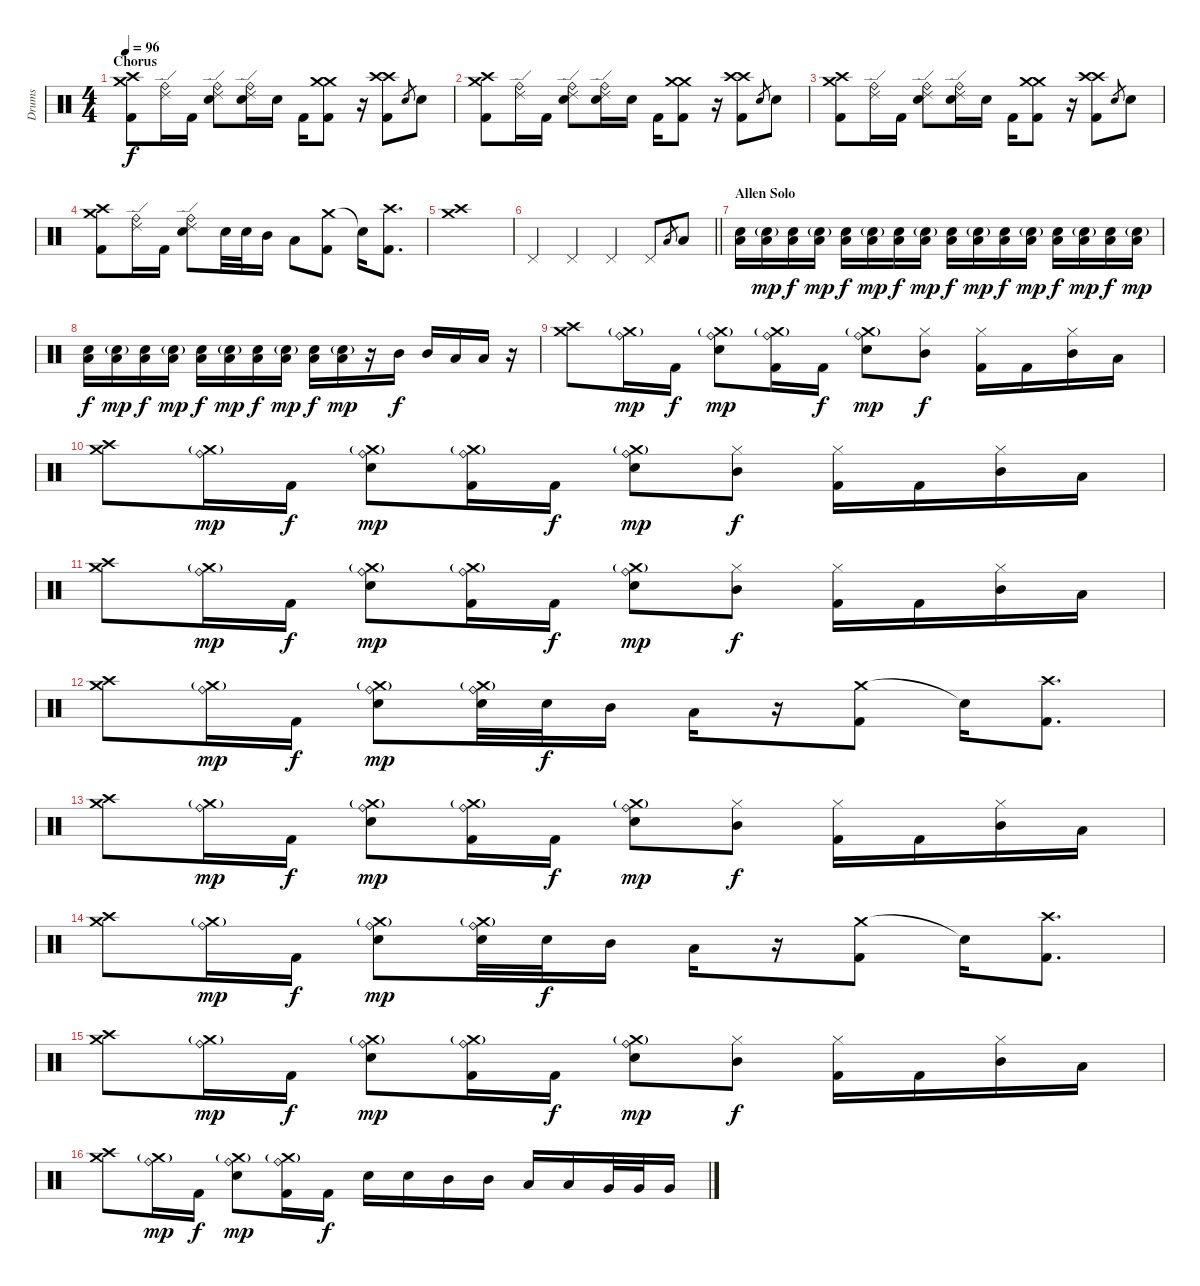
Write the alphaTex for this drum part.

\track ("Drums" "Drums") {instrument percussion}
\staff {score}
\articulation defaults
\ts (4 4)
\section ("" "Chorus")
\tempo 96
\clef neutral
\ks c
("Crash medium (hit)" "Crash high (hit)" "Kick (hit) 2").8{dy f} ("Ride (edge) 2" "Ride (bell)").16 "Kick (hit) 2".16 ("Ride (edge) 2" "Ride (bell)" "Electric Snare (hit)").8 ("Ride (edge) 2" "Ride (bell)" "Electric Snare (hit)").16 "Electric Snare (hit)".16 "Kick (hit) 2".16 ("Crash medium (hit)" "Crash medium (hit)" "Kick (hit) 2").8 r.16 ("Crash high (hit)" "Crash high (hit)" "Kick (hit) 2").8 "Electric Snare (hit)".8{gr} "Electric Snare (hit)".8 |
("Crash medium (hit)" "Crash high (hit)" "Kick (hit) 2").8 ("Ride (edge) 2" "Ride (bell)").16 "Kick (hit) 2".16 ("Ride (edge) 2" "Ride (bell)" "Electric Snare (hit)").8 ("Ride (edge) 2" "Ride (bell)" "Electric Snare (hit)").16 "Electric Snare (hit)".16 "Kick (hit) 2".16 ("Crash medium (hit)" "Crash medium (hit)" "Kick (hit) 2").8 r.16 ("Crash high (hit)" "Crash high (hit)" "Kick (hit) 2").8 "Electric Snare (hit)".8{gr} "Electric Snare (hit)".8 |
("Crash medium (hit)" "Crash high (hit)" "Kick (hit) 2").8 ("Ride (edge) 2" "Ride (bell)").16 "Kick (hit) 2".16 ("Ride (edge) 2" "Ride (bell)" "Electric Snare (hit)").8 ("Ride (edge) 2" "Ride (bell)" "Electric Snare (hit)").16 "Electric Snare (hit)".16 "Kick (hit) 2".16 ("Crash medium (hit)" "Crash medium (hit)" "Kick (hit) 2").8 r.16 ("Crash high (hit)" "Crash high (hit)" "Kick (hit) 2").8 "Electric Snare (hit)".8{gr} "Electric Snare (hit)".8 |
("Crash medium (hit)" "Crash high (hit)" "Kick (hit) 2").8 ("Ride (edge) 2" "Ride (bell)").16 "Kick (hit) 2".16 ("Ride (edge) 2" "Ride (bell)" "Electric Snare (hit)").8 "Electric Snare (hit)".32 "Electric Snare (hit)".32 "Mid Tom (hit)".16 "Low Tom (hit)".8 ("Crash medium (hit)" "Kick (hit) 2").8 "Snare (hit)"{t}.16 ("Crash high (hit)" "Kick (hit) 2").8{d} |
("Crash medium (hit)" "Crash high (hit)").1 |
\barLineRight lightlight "Pedal Hi-Hat (hit)".4 "Pedal Hi-Hat (hit)".4 "Pedal Hi-Hat (hit)".4 "Pedal Hi-Hat (hit)".8 "Low Floor Tom (hit)".8{gr} "Low Floor Tom (hit)".8
|
\section ("" "Allen Solo")
("Electric Snare (hit)" "Low Floor Tom (hit)").16 ("Electric Snare (hit)"{g} "Low Floor Tom (hit)").16{dy mp} ("Electric Snare (hit)" "Low Floor Tom (hit)").16{dy f} ("Electric Snare (hit)"{g} "Low Floor Tom (hit)").16{dy mp} ("Electric Snare (hit)" "Low Floor Tom (hit)").16{dy f} ("Electric Snare (hit)"{g} "Low Floor Tom (hit)").16{dy mp} ("Electric Snare (hit)" "Low Floor Tom (hit)").16{dy f} ("Electric Snare (hit)"{g} "Low Floor Tom (hit)").16{dy mp} ("Electric Snare (hit)" "Low Floor Tom (hit)").16{dy f} ("Electric Snare (hit)"{g} "Low Floor Tom (hit)").16{dy mp} ("Electric Snare (hit)" "Low Floor Tom (hit)").16{dy f} ("Electric Snare (hit)"{g} "Low Floor Tom (hit)").16{dy mp} ("Electric Snare (hit)" "Low Floor Tom (hit)").16{dy f} ("Electric Snare (hit)"{g} "Low Floor Tom (hit)").16{dy mp} ("Electric Snare (hit)" "Low Floor Tom (hit)").16{dy f} ("Electric Snare (hit)"{g} "Low Floor Tom (hit)").16{dy mp} |
("Electric Snare (hit)" "Low Floor Tom (hit)").16{dy f} ("Electric Snare (hit)"{g} "Low Floor Tom (hit)").16{dy mp} ("Electric Snare (hit)" "Low Floor Tom (hit)").16{dy f} ("Electric Snare (hit)"{g} "Low Floor Tom (hit)").16{dy mp} ("Electric Snare (hit)" "Low Floor Tom (hit)").16{dy f} ("Electric Snare (hit)"{g} "Low Floor Tom (hit)").16{dy mp} ("Electric Snare (hit)" "Low Floor Tom (hit)").16{dy f} ("Electric Snare (hit)"{g} "Low Floor Tom (hit)").16{dy mp} ("Electric Snare (hit)" "Low Floor Tom (hit)").16{dy f} ("Electric Snare (hit)"{g} "Low Floor Tom (hit)").16{dy mp} r.16 "Mid Tom (hit)".16{dy f} "Mid Tom (hit)".16 "Low Tom (hit)".16 "Low Tom (hit)".16 r.16 |
("Crash medium (hit)" "Crash high (hit)").8 ("Crash medium (hit)"{g} "Ride (bell)").16{dy mp} "Kick (hit) 2".16{dy f} ("Crash medium (hit)"{g} "Ride (bell)" "Electric Snare (hit)").8{dy mp} ("Crash medium (hit)"{g} "Ride (bell)" "Kick (hit) 2").16 "Kick (hit) 2".16{dy f} ("Crash medium (hit)"{g} "Ride (bell)" "Electric Snare (hit)").8{dy mp} ("Hi-Hat (closed)" "Mid Tom (hit)").8{dy f} ("Hi-Hat (closed)" "Kick (hit) 2").16 "Kick (hit) 2".16 ("Hi-Hat (closed)" "Mid Tom (hit)").16 "Low Tom (hit)".16 |
("Crash medium (hit)" "Crash high (hit)").8 ("Crash medium (hit)"{g} "Ride (bell)").16{dy mp} "Kick (hit) 2".16{dy f} ("Crash medium (hit)"{g} "Ride (bell)" "Electric Snare (hit)").8{dy mp} ("Crash medium (hit)"{g} "Ride (bell)" "Kick (hit) 2").16 "Kick (hit) 2".16{dy f} ("Crash medium (hit)"{g} "Ride (bell)" "Electric Snare (hit)").8{dy mp} ("Hi-Hat (closed)" "Mid Tom (hit)").8{dy f} ("Hi-Hat (closed)" "Kick (hit) 2").16 "Kick (hit) 2".16 ("Hi-Hat (closed)" "Mid Tom (hit)").16 "Low Tom (hit)".16 |
("Crash medium (hit)" "Crash high (hit)").8 ("Crash medium (hit)"{g} "Ride (bell)").16{dy mp} "Kick (hit) 2".16{dy f} ("Crash medium (hit)"{g} "Ride (bell)" "Electric Snare (hit)").8{dy mp} ("Crash medium (hit)"{g} "Ride (bell)" "Kick (hit) 2").16 "Kick (hit) 2".16{dy f} ("Crash medium (hit)"{g} "Ride (bell)" "Electric Snare (hit)").8{dy mp} ("Hi-Hat (closed)" "Mid Tom (hit)").8{dy f} ("Hi-Hat (closed)" "Kick (hit) 2").16 "Kick (hit) 2".16 ("Hi-Hat (closed)" "Mid Tom (hit)").16 "Low Tom (hit)".16 |
("Crash medium (hit)" "Crash high (hit)").8 ("Crash medium (hit)"{g} "Ride (bell)").16{dy mp} "Kick (hit) 2".16{dy f} ("Crash medium (hit)"{g} "Ride (bell)" "Electric Snare (hit)").8{dy mp} ("Crash medium (hit)"{g} "Ride (bell)" "Electric Snare (hit)").32 "Electric Snare (hit)".32{dy f} "Mid Tom (hit)".16 "Low Tom (hit)".16 r.16 ("Crash medium (hit)" "Kick (hit) 2").8 "Snare (hit)"{t}.16 ("Crash high (hit)" "Kick (hit) 2").8{d} |
("Crash medium (hit)" "Crash high (hit)").8 ("Crash medium (hit)"{g} "Ride (bell)").16{dy mp} "Kick (hit) 2".16{dy f} ("Crash medium (hit)"{g} "Ride (bell)" "Electric Snare (hit)").8{dy mp} ("Crash medium (hit)"{g} "Ride (bell)" "Kick (hit) 2").16 "Kick (hit) 2".16{dy f} ("Crash medium (hit)"{g} "Ride (bell)" "Electric Snare (hit)").8{dy mp} ("Hi-Hat (closed)" "Mid Tom (hit)").8{dy f} ("Hi-Hat (closed)" "Kick (hit) 2").16 "Kick (hit) 2".16 ("Hi-Hat (closed)" "Mid Tom (hit)").16 "Low Tom (hit)".16 |
("Crash medium (hit)" "Crash high (hit)").8 ("Crash medium (hit)"{g} "Ride (bell)").16{dy mp} "Kick (hit) 2".16{dy f} ("Crash medium (hit)"{g} "Ride (bell)" "Electric Snare (hit)").8{dy mp} ("Crash medium (hit)"{g} "Ride (bell)" "Electric Snare (hit)").32 "Electric Snare (hit)".32{dy f} "Mid Tom (hit)".16 "Low Tom (hit)".16 r.16 ("Crash medium (hit)" "Kick (hit) 2").8 "Snare (hit)"{t}.16 ("Crash high (hit)" "Kick (hit) 2").8{d} |
("Crash medium (hit)" "Crash high (hit)").8 ("Crash medium (hit)"{g} "Ride (bell)").16{dy mp} "Kick (hit) 2".16{dy f} ("Crash medium (hit)"{g} "Ride (bell)" "Electric Snare (hit)").8{dy mp} ("Crash medium (hit)"{g} "Ride (bell)" "Kick (hit) 2").16 "Kick (hit) 2".16{dy f} ("Crash medium (hit)"{g} "Ride (bell)" "Electric Snare (hit)").8{dy mp} ("Hi-Hat (closed)" "Mid Tom (hit)").8{dy f} ("Hi-Hat (closed)" "Kick (hit) 2").16 "Kick (hit) 2".16 ("Hi-Hat (closed)" "Mid Tom (hit)").16 "Low Tom (hit)".16 |
("Crash medium (hit)" "Crash high (hit)").8 ("Crash medium (hit)"{g} "Ride (bell)").16{dy mp} "Kick (hit) 2".16{dy f} ("Crash medium (hit)"{g} "Ride (bell)" "Electric Snare (hit)").8{dy mp} ("Crash medium (hit)"{g} "Ride (bell)" "Kick (hit) 2").16 "Kick (hit) 2".16{dy f} "Electric Snare (hit)".16 "Electric Snare (hit)".16 "Mid Tom (hit)".16 "Mid Tom (hit)".16 "Low Tom (hit)".16 "Low Tom (hit)".16 "Very Low Tom (hit)".32 "Very Low Tom (hit)".32 "Very Low Tom (hit)".16
